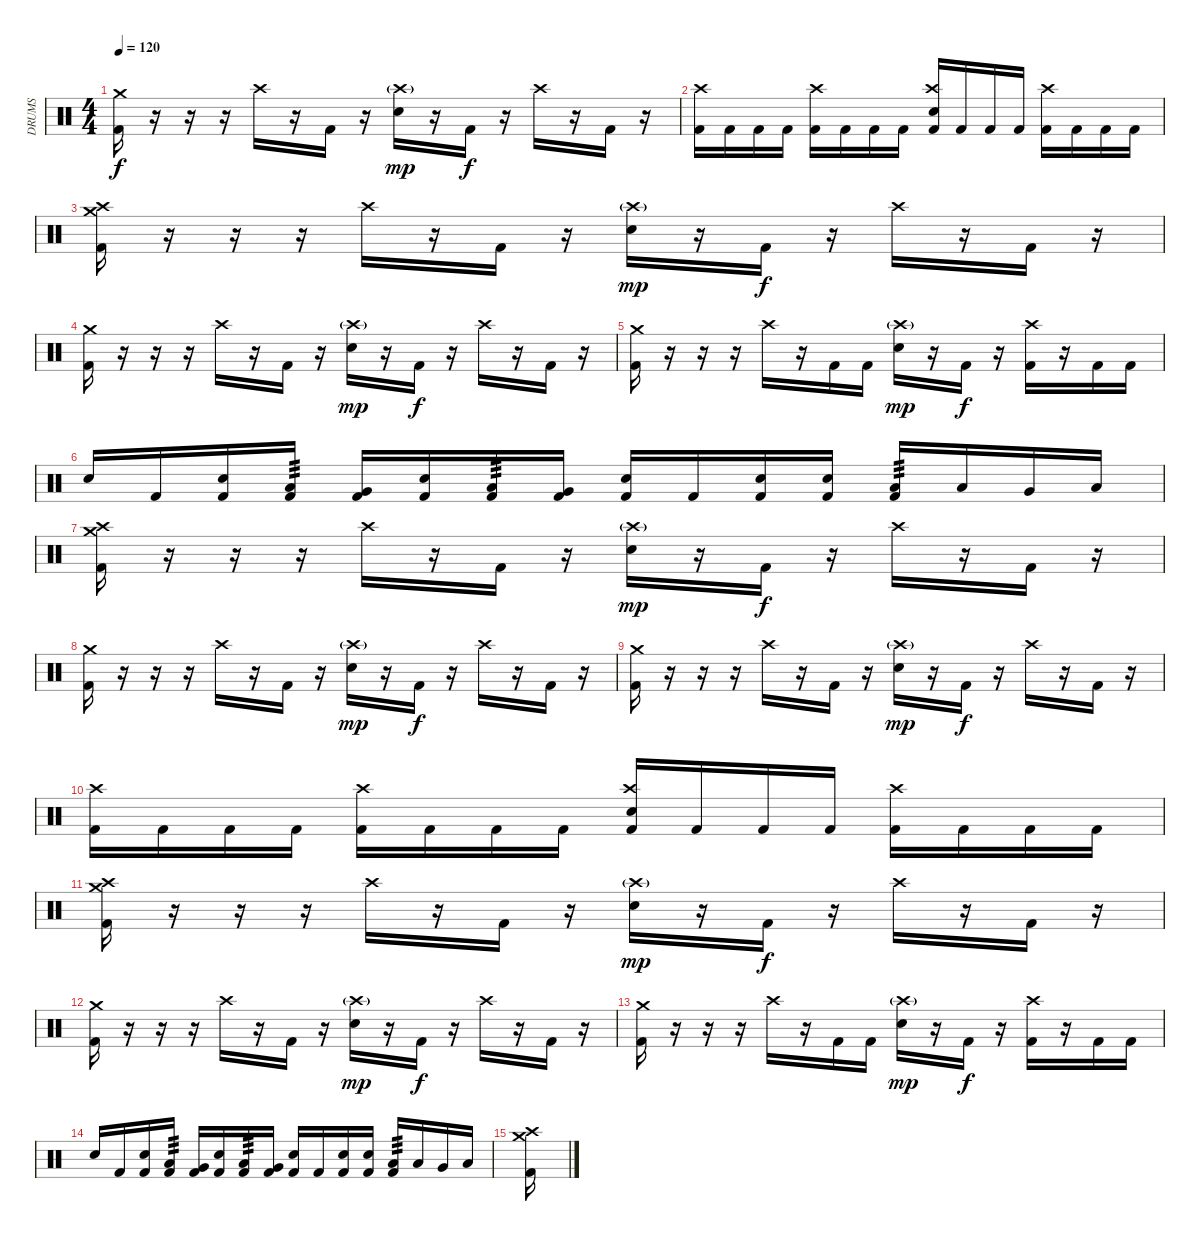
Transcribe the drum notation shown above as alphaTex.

\track ("DRUMS" "DRUMS") {instrument percussion}
\staff {score}
\articulation defaults
\ts (4 4)
\tempo 120
\clef neutral
\ks c
("Crash medium (hit)" "Kick (hit) 2").16{dy f} r.16 r.16 r.16 "Crash high (hit)".16 r.16 "Kick (hit) 2".16 r.16 ("Crash high (hit)"{g} "Electric Snare (hit)").16{dy mp} r.16 "Kick (hit) 2".16{dy f} r.16 "Crash high (hit)".16 r.16 "Kick (hit) 2".16 r.16 |
("Crash high (hit)" "Kick (hit) 2").16 "Kick (hit) 2".16 "Kick (hit) 2".16 "Kick (hit) 2".16 ("Crash high (hit)" "Kick (hit) 2").16 "Kick (hit) 2".16 "Kick (hit) 2".16 "Kick (hit) 2".16 ("Crash high (hit)" "Electric Snare (hit)" "Kick (hit) 2").16 "Kick (hit) 2".16 "Kick (hit) 2".16 "Kick (hit) 2".16 ("Crash high (hit)" "Kick (hit) 2").16 "Kick (hit) 2".16 "Kick (hit) 2".16 "Kick (hit) 2".16 |
("Crash high (hit)" "Crash medium (hit)" "Kick (hit) 2").16 r.16 r.16 r.16 "Crash high (hit)".16 r.16 "Kick (hit) 2".16 r.16 ("Crash high (hit)"{g} "Electric Snare (hit)").16{dy mp} r.16 "Kick (hit) 2".16{dy f} r.16 "Crash high (hit)".16 r.16 "Kick (hit) 2".16 r.16 |
("Crash medium (hit)" "Kick (hit) 2").16 r.16 r.16 r.16 "Crash high (hit)".16 r.16 "Kick (hit) 2".16 r.16 ("Crash high (hit)"{g} "Electric Snare (hit)").16{dy mp} r.16 "Kick (hit) 2".16{dy f} r.16 "Crash high (hit)".16 r.16 "Kick (hit) 2".16 r.16 |
("Crash medium (hit)" "Kick (hit) 2").16 r.16 r.16 r.16 "Crash high (hit)".16 r.16 "Kick (hit) 2".16 "Kick (hit) 2".16 ("Crash high (hit)"{g} "Electric Snare (hit)").16{dy mp} r.16 "Kick (hit) 2".16{dy f} r.16 ("Crash high (hit)" "Kick (hit) 2").16 r.16 "Kick (hit) 2".16 "Kick (hit) 2".16 |
"Electric Snare (hit)".16 "Kick (hit) 2".16 ("Electric Snare (hit)" "Kick (hit) 2").16 ("Low Tom (hit)" "Kick (hit) 2").16{tp 3} ("Very Low Tom (hit)" "Kick (hit) 2").16 ("Electric Snare (hit)" "Kick (hit) 2").16 ("Low Tom (hit)" "Kick (hit) 2").16{tp 3} ("Very Low Tom (hit)" "Kick (hit) 2").16 ("Electric Snare (hit)" "Kick (hit) 2").16 "Kick (hit) 2".16 ("Electric Snare (hit)" "Kick (hit) 2").16 ("Electric Snare (hit)" "Kick (hit) 2").16 ("Low Tom (hit)" "Kick (hit) 2").16{tp 3} "Low Tom (hit)".16 "Very Low Tom (hit)".16 "Low Floor Tom (hit)".16 |
("Crash high (hit)" "Crash medium (hit)" "Kick (hit) 2").16 r.16 r.16 r.16 "Crash high (hit)".16 r.16 "Kick (hit) 2".16 r.16 ("Crash high (hit)"{g} "Electric Snare (hit)").16{dy mp} r.16 "Kick (hit) 2".16{dy f} r.16 "Crash high (hit)".16 r.16 "Kick (hit) 2".16 r.16 |
("Crash medium (hit)" "Kick (hit) 2").16 r.16 r.16 r.16 "Crash high (hit)".16 r.16 "Kick (hit) 2".16 r.16 ("Crash high (hit)"{g} "Electric Snare (hit)").16{dy mp} r.16 "Kick (hit) 2".16{dy f} r.16 "Crash high (hit)".16 r.16 "Kick (hit) 2".16 r.16 |
("Crash medium (hit)" "Kick (hit) 2").16 r.16 r.16 r.16 "Crash high (hit)".16 r.16 "Kick (hit) 2".16 r.16 ("Crash high (hit)"{g} "Electric Snare (hit)").16{dy mp} r.16 "Kick (hit) 2".16{dy f} r.16 "Crash high (hit)".16 r.16 "Kick (hit) 2".16 r.16 |
("Crash high (hit)" "Kick (hit) 2").16 "Kick (hit) 2".16 "Kick (hit) 2".16 "Kick (hit) 2".16 ("Crash high (hit)" "Kick (hit) 2").16 "Kick (hit) 2".16 "Kick (hit) 2".16 "Kick (hit) 2".16 ("Crash high (hit)" "Electric Snare (hit)" "Kick (hit) 2").16 "Kick (hit) 2".16 "Kick (hit) 2".16 "Kick (hit) 2".16 ("Crash high (hit)" "Kick (hit) 2").16 "Kick (hit) 2".16 "Kick (hit) 2".16 "Kick (hit) 2".16 |
("Crash high (hit)" "Crash medium (hit)" "Kick (hit) 2").16 r.16 r.16 r.16 "Crash high (hit)".16 r.16 "Kick (hit) 2".16 r.16 ("Crash high (hit)"{g} "Electric Snare (hit)").16{dy mp} r.16 "Kick (hit) 2".16{dy f} r.16 "Crash high (hit)".16 r.16 "Kick (hit) 2".16 r.16 |
("Crash medium (hit)" "Kick (hit) 2").16 r.16 r.16 r.16 "Crash high (hit)".16 r.16 "Kick (hit) 2".16 r.16 ("Crash high (hit)"{g} "Electric Snare (hit)").16{dy mp} r.16 "Kick (hit) 2".16{dy f} r.16 "Crash high (hit)".16 r.16 "Kick (hit) 2".16 r.16 |
("Crash medium (hit)" "Kick (hit) 2").16 r.16 r.16 r.16 "Crash high (hit)".16 r.16 "Kick (hit) 2".16 "Kick (hit) 2".16 ("Crash high (hit)"{g} "Electric Snare (hit)").16{dy mp} r.16 "Kick (hit) 2".16{dy f} r.16 ("Crash high (hit)" "Kick (hit) 2").16 r.16 "Kick (hit) 2".16 "Kick (hit) 2".16 |
"Electric Snare (hit)".16 "Kick (hit) 2".16 ("Electric Snare (hit)" "Kick (hit) 2").16 ("Low Tom (hit)" "Kick (hit) 2").16{tp 3} ("Very Low Tom (hit)" "Kick (hit) 2").16 ("Electric Snare (hit)" "Kick (hit) 2").16 ("Low Tom (hit)" "Kick (hit) 2").16{tp 3} ("Very Low Tom (hit)" "Kick (hit) 2").16 ("Electric Snare (hit)" "Kick (hit) 2").16 "Kick (hit) 2".16 ("Electric Snare (hit)" "Kick (hit) 2").16 ("Electric Snare (hit)" "Kick (hit) 2").16 ("Low Tom (hit)" "Kick (hit) 2").16{tp 3} "Low Tom (hit)".16 "Very Low Tom (hit)".16 "Low Floor Tom (hit)".16 |
("Crash high (hit)" "Crash medium (hit)" "Kick (hit) 2").16
